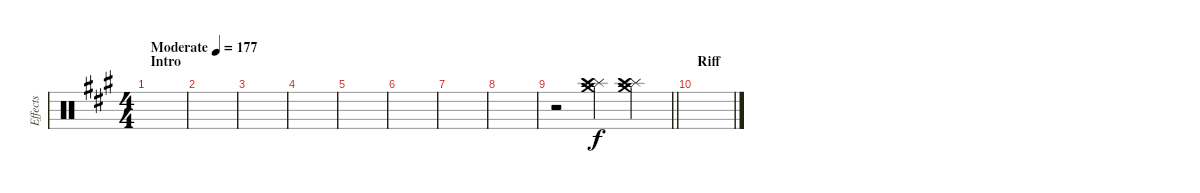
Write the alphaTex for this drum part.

\track ("Effects" "Effects") {instrument percussion}
\staff {score}
\articulation defaults
\ts (4 4)
\section ("" "Intro")
\tempo (177 "Moderate")
\clef neutral
\ks a
|
|
|
|
|
|
|
|
\barLineRight lightlight
r.2 ("Splash (hit)" "Crash medium (hit)" "Crash high (hit)").4{volume 10} ("Splash (hit)" "Crash medium (hit)" "Crash high (hit)").4{volume 16} |
\section ("" "Riff")
